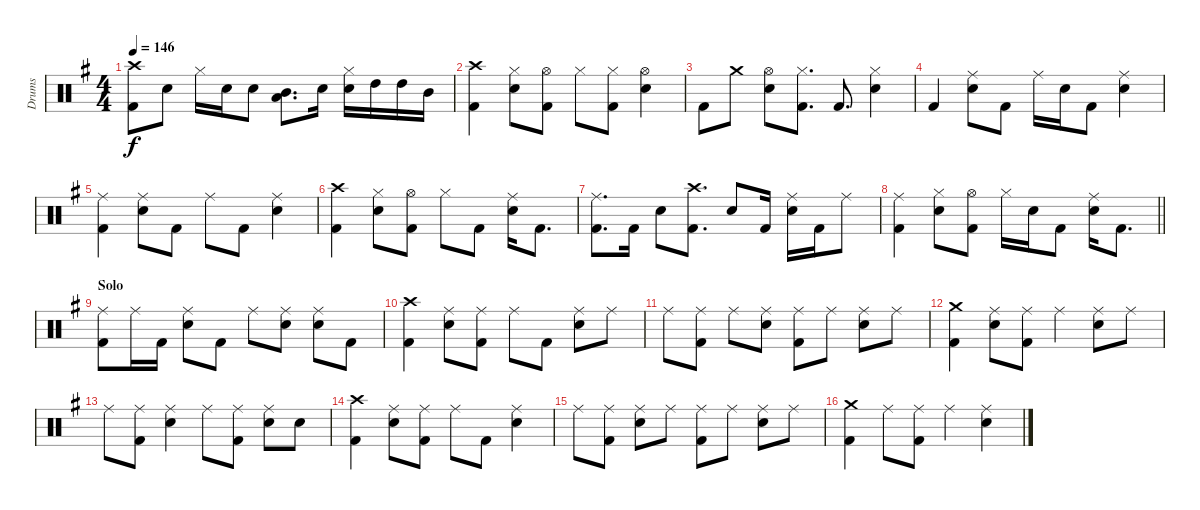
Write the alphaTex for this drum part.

\track ("Drums" "Drums") {instrument percussion}
\staff {score}
\articulation defaults
\ts (4 4)
\tempo 146
\clef neutral
\ks g
("Kick (hit) 2" "Crash high (hit)").8{dy f} "Snare (hit) 2".8 "Hi-Hat (closed)".16 "Snare (hit) 2".16 "Snare (hit) 2".8 ("Mid Tom (hit)" "Low Tom (hit)").8{d} "Snare (hit) 2".16 ("Snare (hit) 2" "Hi-Hat (closed)").16 "High Tom (hit)".16 "High Tom (hit)".16 "Mid Tom (hit)".16 |
("Kick (hit) 2" "Crash high (hit)").4 ("Snare (hit) 2" "Hi-Hat (closed)").8 ("Kick (hit) 2" "Hi-Hat (open)").8 "Hi-Hat (closed)".8 ("Kick (hit) 2" "Hi-Hat (closed)").8 ("Snare (hit) 2" "Hi-Hat (open)").4 |
"Kick (hit) 2".8 "Crash medium (hit)".8 ("Snare (hit) 2" "Hi-Hat (open)").8 ("Kick (hit) 2" "Hi-Hat (closed)").8{d} "Kick (hit) 2".8{d} ("Snare (hit) 2" "Hi-Hat (closed)").4 |
"Kick (hit) 2".4 ("Snare (hit) 2" "Ride (middle)").8 "Kick (hit) 2".8 "Ride (middle)".16 "Snare (hit) 2".16 "Kick (hit) 2".8 ("Snare (hit) 2" "Ride (middle)").4 |
("Kick (hit) 2" "Ride (middle)").4 ("Snare (hit) 2" "Ride (middle)").8 "Kick (hit) 2".8 "Ride (middle)".8 "Kick (hit) 2".8 ("Snare (hit) 2" "Ride (middle)").4 |
("Kick (hit) 2" "Crash high (hit)").4 ("Snare (hit) 2" "Hi-Hat (closed)").8 ("Kick (hit) 2" "Hi-Hat (open)").8 "Hi-Hat (closed)".8 "Kick (hit) 2".8 ("Snare (hit) 2" "Ride (middle)").16 "Kick (hit) 2".8{d} |
("Kick (hit) 2" "Ride (middle)").8{d} "Kick (hit) 2".16 "Snare (hit) 2".8 ("Kick (hit) 2" "Crash high (hit)").8{d} "Snare (hit) 2".8 "Kick (hit) 2".16 ("Snare (hit) 2" "Ride (middle)").16 "Kick (hit) 2".16 "Ride (middle)".8 |
\barLineRight lightlight
("Kick (hit) 2" "Ride (middle)").4 ("Snare (hit) 2" "Hi-Hat (closed)").8 ("Kick (hit) 2" "Hi-Hat (open)").8 "Hi-Hat (closed)".16 "Snare (hit) 2".16 "Kick (hit) 2".8 ("Snare (hit) 2" "Ride (middle)").16 "Kick (hit) 2".8{d} |
\section ("" "Solo")
("Kick (hit) 2" "Ride (middle)").8 "Ride (middle)".16 "Kick (hit) 2".16 ("Snare (hit) 2" "Ride (middle)").8 "Kick (hit) 2".8 "Ride (middle)".8 ("Snare (hit) 2" "Ride (middle)").8 ("Snare (hit) 2" "Ride (middle)").8 "Kick (hit) 2".8 |
("Kick (hit) 2" "Crash high (hit)").4 ("Snare (hit) 2" "Ride (middle)").8 ("Kick (hit) 2" "Ride (middle)").8 "Ride (middle)".8 "Kick (hit) 2".8 ("Snare (hit) 2" "Ride (middle)").8 "Ride (middle)".8 |
"Ride (middle)".8 ("Kick (hit) 2" "Ride (middle)").8 "Ride (middle)".8 ("Snare (hit) 2" "Ride (middle)").8 ("Kick (hit) 2" "Ride (middle)").8 "Ride (middle)".8 ("Snare (hit) 2" "Ride (middle)").8 "Ride (middle)".8 |
("Kick (hit) 2" "Crash medium (hit)").4 ("Snare (hit) 2" "Ride (middle)").8 ("Kick (hit) 2" "Ride (middle)").8 "Ride (middle)".4 ("Snare (hit) 2" "Ride (middle)").8 "Ride (middle)".8 |
"Ride (middle)".8 ("Kick (hit) 2" "Ride (middle)").8 ("Snare (hit) 2" "Ride (middle)").4 "Ride (middle)".8 ("Kick (hit) 2" "Ride (middle)").8 ("Snare (hit) 2" "Ride (middle)").8 "Snare (hit) 2".8 |
("Kick (hit) 2" "Crash high (hit)").4 ("Snare (hit) 2" "Ride (middle)").8 ("Kick (hit) 2" "Ride (middle)").8 "Ride (middle)".8 "Kick (hit) 2".8 ("Snare (hit) 2" "Ride (middle)").4 |
"Ride (middle)".8 ("Kick (hit) 2" "Ride (middle)").8 ("Snare (hit) 2" "Ride (middle)").8 "Ride (middle)".8 ("Kick (hit) 2" "Ride (middle)").8 "Ride (middle)".8 ("Snare (hit) 2" "Ride (middle)").8 "Ride (middle)".8 |
("Kick (hit) 2" "Crash medium (hit)").4 "Ride (middle)".8 ("Kick (hit) 2" "Ride (middle)").8 "Ride (middle)".4 ("Snare (hit) 2" "Ride (middle)").4
